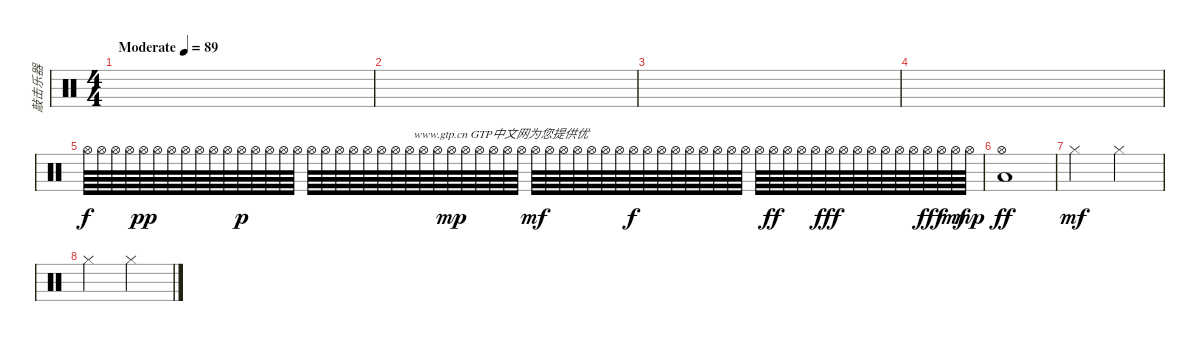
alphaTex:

\track ("敲击乐器" "敲击乐器") {instrument percussion}
\staff {score}
\articulation defaults
\ts (4 4)
\tempo (89 "Moderate")
\clef neutral
\ks c
|
|
|
|
"Hi-Hat (open)".64 "Hi-Hat (open)".64 "Hi-Hat (open)".64 "Hi-Hat (open)".64 "Hi-Hat (open)".64{dy pp} "Hi-Hat (open)".64 "Hi-Hat (open)".64 "Hi-Hat (open)".64 "Hi-Hat (open)".64 "Hi-Hat (open)".64 "Hi-Hat (open)".64 "Hi-Hat (open)".64{dy p} "Hi-Hat (open)".64 "Hi-Hat (open)".64 "Hi-Hat (open)".64 "Hi-Hat (open)".64 "Hi-Hat (open)".64 "Hi-Hat (open)".64 "Hi-Hat (open)".64 "Hi-Hat (open)".64{txt "                    www.gtp.cn GTP中文网为您提供优"} "Hi-Hat (open)".64 "Hi-Hat (open)".64 "Hi-Hat (open)".64 "Hi-Hat (open)".64 "Hi-Hat (open)".64 "Hi-Hat (open)".64 "Hi-Hat (open)".64{dy mp} "Hi-Hat (open)".64 "Hi-Hat (open)".64 "Hi-Hat (open)".64 "Hi-Hat (open)".64 "Hi-Hat (open)".64 "Hi-Hat (open)".64{dy mf} "Hi-Hat (open)".64 "Hi-Hat (open)".64 "Hi-Hat (open)".64 "Hi-Hat (open)".64 "Hi-Hat (open)".64 "Hi-Hat (open)".64 "Hi-Hat (open)".64{dy f} "Hi-Hat (open)".64 "Hi-Hat (open)".64 "Hi-Hat (open)".64 "Hi-Hat (open)".64 "Hi-Hat (open)".64 "Hi-Hat (open)".64 "Hi-Hat (open)".64 "Hi-Hat (open)".64 "Hi-Hat (open)".64 "Hi-Hat (open)".64{dy ff} "Hi-Hat (open)".64 "Hi-Hat (open)".64 "Hi-Hat (open)".64 "Hi-Hat (open)".64{dy fff} "Hi-Hat (open)".64 "Hi-Hat (open)".64 "Hi-Hat (open)".64 "Hi-Hat (open)".64 "Hi-Hat (open)".64 "Hi-Hat (open)".64 "Hi-Hat (open)".64{dy ff} "Hi-Hat (open)".64{dy f} "Hi-Hat (open)".64{dy mf} "Hi-Hat (open)".64{dy mp} |
("Hi-Hat (open)" "Low Floor Tom (hit)").1{dy ff} |
"Hi-Hat (closed)".2{dy mf} "Hi-Hat (closed)".2 |
"Hi-Hat (closed)".2 "Hi-Hat (closed)".2
